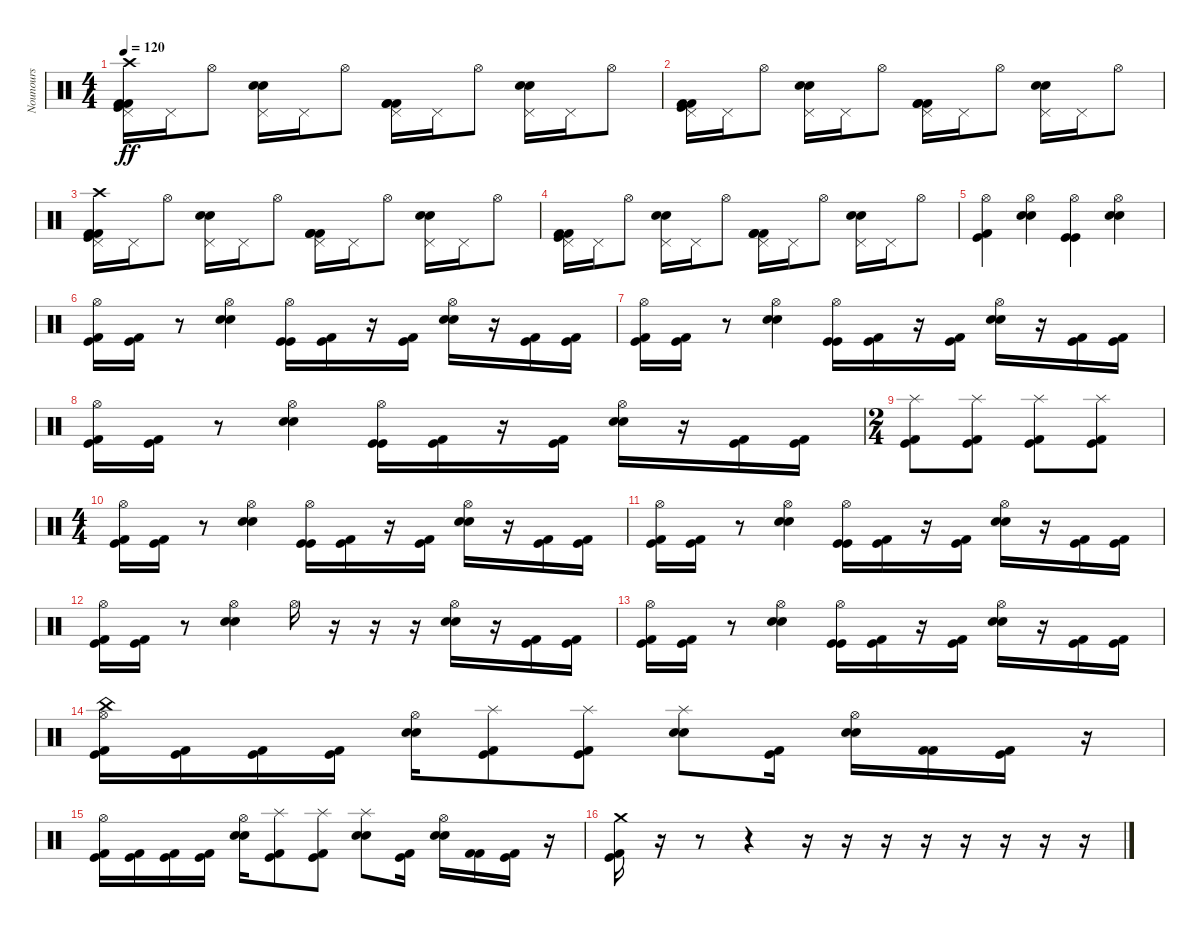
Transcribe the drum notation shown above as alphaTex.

\track ("Nounours" "Nounours") {instrument percussion}
\staff {score}
\articulation defaults
\ts (4 4)
\tempo 120
\clef neutral
\ks c
("Pedal Hi-Hat (hit)" "Crash high (hit)" "Kick (hit) 2" "Kick (hit) 2" "Kick (hit)").16{dy ff} "Pedal Hi-Hat (hit)".16 "Hi-Hat (open)".8 ("Pedal Hi-Hat (hit)" "Electric Snare (hit)" "Electric Snare (hit)").16 "Pedal Hi-Hat (hit)".16 "Hi-Hat (open)".8 ("Pedal Hi-Hat (hit)" "Kick (hit) 2" "Kick (hit) 2" "Kick (hit) 2").16 "Pedal Hi-Hat (hit)".16 "Hi-Hat (open)".8 ("Pedal Hi-Hat (hit)" "Electric Snare (hit)" "Electric Snare (hit)").16 "Pedal Hi-Hat (hit)".16 "Hi-Hat (open)".8 |
("Pedal Hi-Hat (hit)" "Kick (hit) 2" "Kick (hit) 2" "Kick (hit)").16 "Pedal Hi-Hat (hit)".16 "Hi-Hat (open)".8 ("Pedal Hi-Hat (hit)" "Electric Snare (hit)" "Electric Snare (hit)").16 "Pedal Hi-Hat (hit)".16 "Hi-Hat (open)".8 ("Pedal Hi-Hat (hit)" "Kick (hit) 2" "Kick (hit) 2" "Kick (hit) 2").16 "Pedal Hi-Hat (hit)".16 "Hi-Hat (open)".8 ("Pedal Hi-Hat (hit)" "Electric Snare (hit)" "Electric Snare (hit)").16 "Pedal Hi-Hat (hit)".16 "Hi-Hat (open)".8 |
("Pedal Hi-Hat (hit)" "Crash high (hit)" "Kick (hit) 2" "Kick (hit) 2" "Kick (hit)").16 "Pedal Hi-Hat (hit)".16 "Hi-Hat (open)".8 ("Pedal Hi-Hat (hit)" "Electric Snare (hit)" "Electric Snare (hit)").16 "Pedal Hi-Hat (hit)".16 "Hi-Hat (open)".8 ("Pedal Hi-Hat (hit)" "Kick (hit) 2" "Kick (hit) 2" "Kick (hit) 2").16 "Pedal Hi-Hat (hit)".16 "Hi-Hat (open)".8 ("Pedal Hi-Hat (hit)" "Electric Snare (hit)" "Electric Snare (hit)").16 "Pedal Hi-Hat (hit)".16 "Hi-Hat (open)".8 |
("Pedal Hi-Hat (hit)" "Kick (hit) 2" "Kick (hit) 2" "Kick (hit)").16 "Pedal Hi-Hat (hit)".16 "Hi-Hat (open)".8 ("Pedal Hi-Hat (hit)" "Electric Snare (hit)" "Electric Snare (hit)").16 "Pedal Hi-Hat (hit)".16 "Hi-Hat (open)".8 ("Pedal Hi-Hat (hit)" "Kick (hit) 2" "Kick (hit) 2" "Kick (hit) 2").16 "Pedal Hi-Hat (hit)".16 "Hi-Hat (open)".8 ("Pedal Hi-Hat (hit)" "Electric Snare (hit)" "Electric Snare (hit)").16 "Pedal Hi-Hat (hit)".16 "Hi-Hat (open)".8 |
("Hi-Hat (open)" "Kick (hit)" "Kick (hit) 2").4 ("Hi-Hat (open)" "Electric Snare (hit)" "Electric Snare (hit)").4 ("Hi-Hat (open)" "Kick (hit)" "Kick (hit)").4 ("Hi-Hat (open)" "Electric Snare (hit)" "Electric Snare (hit)").4 |
("Hi-Hat (open)" "Kick (hit)" "Kick (hit) 2").16 ("Kick (hit)" "Kick (hit) 2").16 r.8 ("Hi-Hat (open)" "Electric Snare (hit)" "Electric Snare (hit)").4 ("Hi-Hat (open)" "Kick (hit)" "Kick (hit)").16 ("Kick (hit)" "Kick (hit) 2").16 r.16 ("Kick (hit)" "Kick (hit) 2").16 ("Hi-Hat (open)" "Electric Snare (hit)" "Electric Snare (hit)").16 r.16 ("Kick (hit)" "Kick (hit) 2").16 ("Kick (hit) 2" "Kick (hit)").16 |
("Hi-Hat (open)" "Kick (hit)" "Kick (hit) 2").16 ("Kick (hit)" "Kick (hit) 2").16 r.8 ("Hi-Hat (open)" "Electric Snare (hit)" "Electric Snare (hit)").4 ("Hi-Hat (open)" "Kick (hit)" "Kick (hit)").16 ("Kick (hit)" "Kick (hit) 2").16 r.16 ("Kick (hit)" "Kick (hit) 2").16 ("Hi-Hat (open)" "Electric Snare (hit)" "Electric Snare (hit)").16 r.16 ("Kick (hit)" "Kick (hit) 2").16 ("Kick (hit) 2" "Kick (hit)").16 |
("Hi-Hat (open)" "Kick (hit)" "Kick (hit) 2").16 ("Kick (hit)" "Kick (hit) 2").16 r.8 ("Hi-Hat (open)" "Electric Snare (hit)" "Electric Snare (hit)").4 ("Hi-Hat (open)" "Kick (hit)" "Kick (hit)").16 ("Kick (hit)" "Kick (hit) 2").16 r.16 ("Kick (hit)" "Kick (hit) 2").16 ("Hi-Hat (open)" "Electric Snare (hit)" "Electric Snare (hit)").16 r.16 ("Kick (hit)" "Kick (hit) 2").16 ("Kick (hit) 2" "Kick (hit)").16 |
\ts (2 4)
("Splash (hit)" "Kick (hit) 2" "Kick (hit)").8 ("Splash (hit)" "Kick (hit)" "Kick (hit) 2").8 ("Splash (hit)" "Kick (hit) 2" "Kick (hit)").8 ("Splash (hit)" "Kick (hit)" "Kick (hit) 2").8 |
\ts (4 4)
("Hi-Hat (open)" "Kick (hit)" "Kick (hit) 2").16 ("Kick (hit)" "Kick (hit) 2").16 r.8 ("Hi-Hat (open)" "Electric Snare (hit)" "Electric Snare (hit)").4 ("Hi-Hat (open)" "Kick (hit)" "Kick (hit)").16 ("Kick (hit)" "Kick (hit) 2").16 r.16 ("Kick (hit)" "Kick (hit) 2").16 ("Hi-Hat (open)" "Electric Snare (hit)" "Electric Snare (hit)").16 r.16 ("Kick (hit)" "Kick (hit) 2").16 ("Kick (hit) 2" "Kick (hit)").16 |
("Hi-Hat (open)" "Kick (hit)" "Kick (hit) 2").16 ("Kick (hit)" "Kick (hit) 2").16 r.8 ("Hi-Hat (open)" "Electric Snare (hit)" "Electric Snare (hit)").4 ("Hi-Hat (open)" "Kick (hit)" "Kick (hit)").16 ("Kick (hit)" "Kick (hit) 2").16 r.16 ("Kick (hit)" "Kick (hit) 2").16 ("Hi-Hat (open)" "Electric Snare (hit)" "Electric Snare (hit)").16 r.16 ("Kick (hit)" "Kick (hit) 2").16 ("Kick (hit) 2" "Kick (hit)").16 |
("Hi-Hat (open)" "Kick (hit)" "Kick (hit) 2").16 ("Kick (hit)" "Kick (hit) 2").16 r.8 ("Hi-Hat (open)" "Electric Snare (hit)" "Electric Snare (hit)").4 "Hi-Hat (open)".16 r.16 r.16 r.16 ("Hi-Hat (open)" "Electric Snare (hit)" "Electric Snare (hit)").16 r.16 ("Kick (hit)" "Kick (hit) 2").16 ("Kick (hit) 2" "Kick (hit)").16 |
("Hi-Hat (open)" "Kick (hit)" "Kick (hit) 2").16 ("Kick (hit)" "Kick (hit) 2").16 r.8 ("Hi-Hat (open)" "Electric Snare (hit)" "Electric Snare (hit)").4 ("Hi-Hat (open)" "Kick (hit)" "Kick (hit)").16 ("Kick (hit)" "Kick (hit) 2").16 r.16 ("Kick (hit)" "Kick (hit) 2").16 ("Hi-Hat (open)" "Electric Snare (hit)" "Electric Snare (hit)").16 r.16 ("Kick (hit)" "Kick (hit) 2").16 ("Kick (hit) 2" "Kick (hit)").16 |
("Hi-Hat (open)" "China (hit)" "Kick (hit)" "Kick (hit) 2").16 ("Kick (hit) 2" "Kick (hit)").16 ("Kick (hit)" "Kick (hit) 2").16 ("Kick (hit) 2" "Kick (hit)").16 ("Hi-Hat (open)" "Electric Snare (hit)" "Electric Snare (hit)").16 ("Splash (hit)" "Kick (hit) 2" "Kick (hit)").8 ("Splash (hit)" "Kick (hit) 2" "Kick (hit)").8 ("Splash (hit)" "Electric Snare (hit)" "Electric Snare (hit)").8 ("Kick (hit) 2" "Kick (hit)").16 ("Hi-Hat (open)" "Electric Snare (hit)" "Electric Snare (hit)").16 ("Kick (hit) 2" "Kick (hit) 2").16 ("Kick (hit)" "Kick (hit) 2").16 r.16 |
("Hi-Hat (open)" "Kick (hit)" "Kick (hit) 2").16 ("Kick (hit) 2" "Kick (hit)").16 ("Kick (hit)" "Kick (hit) 2").16 ("Kick (hit) 2" "Kick (hit)").16 ("Hi-Hat (open)" "Electric Snare (hit)" "Electric Snare (hit)").16 ("Splash (hit)" "Kick (hit) 2" "Kick (hit)").8 ("Splash (hit)" "Kick (hit) 2" "Kick (hit)").8 ("Splash (hit)" "Electric Snare (hit)" "Electric Snare (hit)").8 ("Kick (hit) 2" "Kick (hit)").16 ("Hi-Hat (open)" "Electric Snare (hit)" "Electric Snare (hit)").16 ("Kick (hit) 2" "Kick (hit) 2").16 ("Kick (hit)" "Kick (hit) 2").16 r.16 |
("Crash medium (hit)" "Kick (hit)" "Kick (hit) 2").16 r.16 r.8 r.4 r.16 r.16 r.16 r.16 r.16 r.16 r.16 r.16
